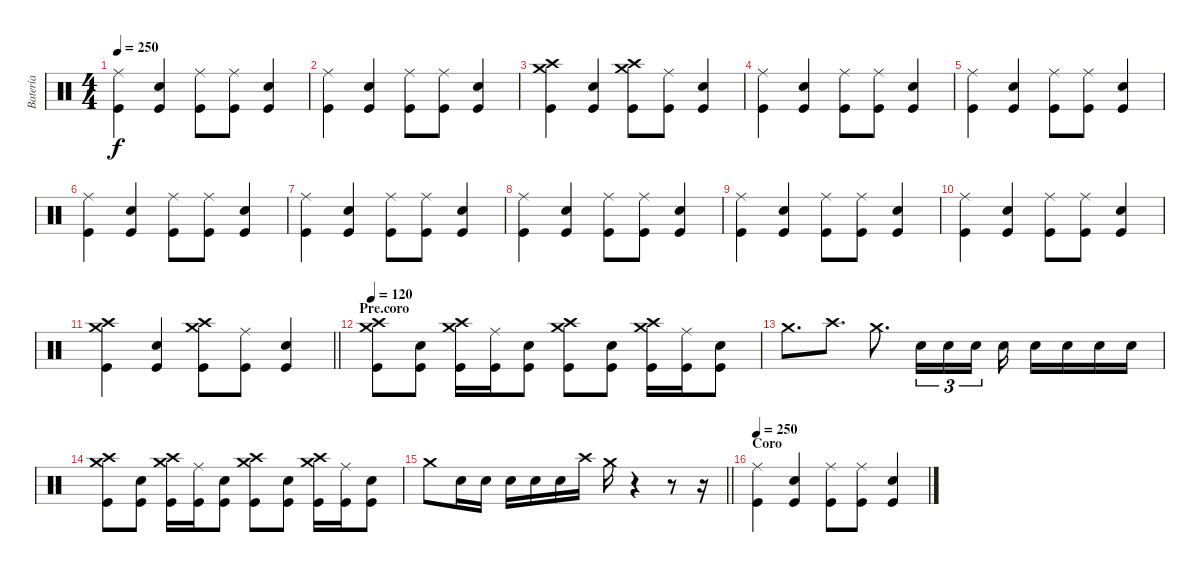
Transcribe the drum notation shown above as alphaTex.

\track ("Batería" "Batería") {instrument percussion}
\staff {score}
\articulation defaults
\ts (4 4)
\tempo 250
\clef neutral
\ks c
("Ride (middle)" "Kick (hit)").4{dy f} ("Electric Snare (hit)" "Kick (hit)").4 ("Ride (middle)" "Kick (hit)").8 ("Ride (middle)" "Kick (hit)").8 ("Electric Snare (hit)" "Kick (hit)").4 |
("Ride (middle)" "Kick (hit)").4 ("Electric Snare (hit)" "Kick (hit)").4 ("Ride (middle)" "Kick (hit)").8 ("Ride (middle)" "Kick (hit)").8 ("Electric Snare (hit)" "Kick (hit)").4 |
("Crash medium (hit)" "Crash high (hit)" "Kick (hit)").4 ("Electric Snare (hit)" "Kick (hit)").4 ("Crash high (hit)" "Crash medium (hit)" "Kick (hit)").8 ("Ride (middle)" "Kick (hit)").8 ("Electric Snare (hit)" "Kick (hit)").4 |
("Ride (middle)" "Kick (hit)").4 ("Electric Snare (hit)" "Kick (hit)").4 ("Ride (middle)" "Kick (hit)").8 ("Ride (middle)" "Kick (hit)").8 ("Electric Snare (hit)" "Kick (hit)").4 |
("Ride (middle)" "Kick (hit)").4 ("Electric Snare (hit)" "Kick (hit)").4 ("Ride (middle)" "Kick (hit)").8 ("Ride (middle)" "Kick (hit)").8 ("Electric Snare (hit)" "Kick (hit)").4 |
("Ride (middle)" "Kick (hit)").4 ("Electric Snare (hit)" "Kick (hit)").4 ("Ride (middle)" "Kick (hit)").8 ("Ride (middle)" "Kick (hit)").8 ("Electric Snare (hit)" "Kick (hit)").4 |
("Ride (middle)" "Kick (hit)").4 ("Electric Snare (hit)" "Kick (hit)").4 ("Ride (middle)" "Kick (hit)").8 ("Ride (middle)" "Kick (hit)").8 ("Electric Snare (hit)" "Kick (hit)").4 |
("Ride (middle)" "Kick (hit)").4 ("Electric Snare (hit)" "Kick (hit)").4 ("Ride (middle)" "Kick (hit)").8 ("Ride (middle)" "Kick (hit)").8 ("Electric Snare (hit)" "Kick (hit)").4 |
("Ride (middle)" "Kick (hit)").4 ("Electric Snare (hit)" "Kick (hit)").4 ("Ride (middle)" "Kick (hit)").8 ("Ride (middle)" "Kick (hit)").8 ("Electric Snare (hit)" "Kick (hit)").4 |
("Ride (middle)" "Kick (hit)").4 ("Electric Snare (hit)" "Kick (hit)").4 ("Ride (middle)" "Kick (hit)").8 ("Ride (middle)" "Kick (hit)").8 ("Electric Snare (hit)" "Kick (hit)").4 |
\barLineRight lightlight
("Crash medium (hit)" "Crash high (hit)" "Kick (hit)").4 ("Electric Snare (hit)" "Kick (hit)").4 ("Crash high (hit)" "Crash medium (hit)" "Kick (hit)").8 ("Ride (middle)" "Kick (hit)").8 ("Electric Snare (hit)" "Kick (hit)").4 |
\section ("" "Pre.coro")
\tempo 120
("Crash medium (hit)" "Crash high (hit)" "Kick (hit)").8 ("Electric Snare (hit)" "Kick (hit)").8 ("Crash high (hit)" "Crash medium (hit)" "Kick (hit)").16 ("Ride (middle)" "Kick (hit)").16 ("Electric Snare (hit)" "Kick (hit)").8 ("Crash medium (hit)" "Crash high (hit)" "Kick (hit)").8 ("Electric Snare (hit)" "Kick (hit)").8 ("Crash high (hit)" "Crash medium (hit)" "Kick (hit)").16 ("Ride (middle)" "Kick (hit)").16 ("Electric Snare (hit)" "Kick (hit)").8 |
"Crash medium (hit)".8{d} "Crash high (hit)".8{d} "Crash medium (hit)".8{d} "Electric Snare (hit)".16{tu (3 2)} "Electric Snare (hit)".16{tu (3 2)} "Electric Snare (hit)".16{tu (3 2) beam splitsecondary} "Electric Snare (hit)".16 "Electric Snare (hit)".16 "Electric Snare (hit)".16 "Electric Snare (hit)".16 "Electric Snare (hit)".16 |
("Crash medium (hit)" "Crash high (hit)" "Kick (hit)").8 ("Electric Snare (hit)" "Kick (hit)").8 ("Crash high (hit)" "Crash medium (hit)" "Kick (hit)").16 ("Ride (middle)" "Kick (hit)").16 ("Electric Snare (hit)" "Kick (hit)").8 ("Crash medium (hit)" "Crash high (hit)" "Kick (hit)").8 ("Electric Snare (hit)" "Kick (hit)").8 ("Crash high (hit)" "Crash medium (hit)" "Kick (hit)").16 ("Ride (middle)" "Kick (hit)").16 ("Electric Snare (hit)" "Kick (hit)").8 |
\barLineRight lightlight "Crash medium (hit)".8 "Electric Snare (hit)".16 "Electric Snare (hit)".16 "Electric Snare (hit)".16 "Electric Snare (hit)".16 "Electric Snare (hit)".16 "Crash high (hit)".16 "Crash medium (hit)".16
r.4 r.8 r.16 |
\section ("" "Coro")
\tempo 250
("Ride (middle)" "Kick (hit)").4 ("Electric Snare (hit)" "Kick (hit)").4 ("Ride (middle)" "Kick (hit)").8 ("Ride (middle)" "Kick (hit)").8 ("Electric Snare (hit)" "Kick (hit)").4
